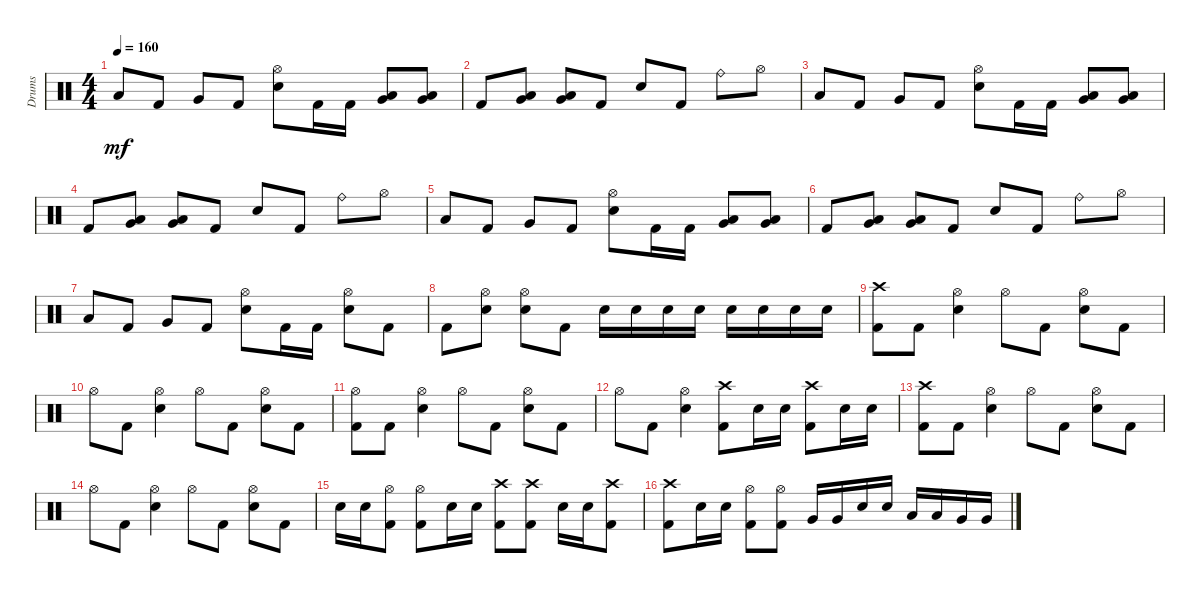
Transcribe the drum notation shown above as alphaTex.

\track ("Drums" "Drums") {instrument percussion}
\staff {score}
\articulation defaults
\ts (4 4)
\tempo 160
\clef neutral
\ks c "Low Tom (hit)".8{dy mf} "Kick (hit) 2".8 "Very Low Tom (hit)".8 "Kick (hit) 2".8
("Hi-Hat (open)" "Electric Snare (hit)").8 "Kick (hit) 2".16 "Kick (hit) 2".16 ("Very Low Tom (hit)" "Low Tom (hit)").8 ("Very Low Tom (hit)" "Low Tom (hit)").8 |
"Kick (hit) 2".8 ("Low Floor Tom (hit)" "Very Low Tom (hit)").8 ("Low Floor Tom (hit)" "Very Low Tom (hit)").8 "Kick (hit) 2".8 "Electric Snare (hit)".8 "Kick (hit) 2".8 "Ride (bell)".8 "Hi-Hat (open)".8 |
"Low Tom (hit)".8 "Kick (hit) 2".8 "Very Low Tom (hit)".8 "Kick (hit) 2".8 ("Hi-Hat (open)" "Electric Snare (hit)").8 "Kick (hit) 2".16 "Kick (hit) 2".16 ("Very Low Tom (hit)" "Low Tom (hit)").8 ("Very Low Tom (hit)" "Low Tom (hit)").8 |
"Kick (hit) 2".8 ("Low Floor Tom (hit)" "Very Low Tom (hit)").8 ("Low Floor Tom (hit)" "Very Low Tom (hit)").8 "Kick (hit) 2".8 "Electric Snare (hit)".8 "Kick (hit) 2".8 "Ride (bell)".8 "Hi-Hat (open)".8 |
"Low Tom (hit)".8 "Kick (hit) 2".8 "Very Low Tom (hit)".8 "Kick (hit) 2".8 ("Hi-Hat (open)" "Electric Snare (hit)").8 "Kick (hit) 2".16 "Kick (hit) 2".16 ("Very Low Tom (hit)" "Low Tom (hit)").8 ("Very Low Tom (hit)" "Low Tom (hit)").8 |
"Kick (hit) 2".8 ("Low Floor Tom (hit)" "Very Low Tom (hit)").8 ("Low Floor Tom (hit)" "Very Low Tom (hit)").8 "Kick (hit) 2".8 "Electric Snare (hit)".8 "Kick (hit) 2".8 "Ride (bell)".8 "Hi-Hat (open)".8 |
"Low Tom (hit)".8 "Kick (hit) 2".8 "Very Low Tom (hit)".8 "Kick (hit) 2".8 ("Hi-Hat (open)" "Electric Snare (hit)").8 "Kick (hit) 2".16 "Kick (hit) 2".16 ("Hi-Hat (open)" "Electric Snare (hit)").8 "Kick (hit) 2".8 |
"Kick (hit) 2".8 ("Hi-Hat (open)" "Electric Snare (hit)").8 ("Hi-Hat (open)" "Electric Snare (hit)").8 "Kick (hit) 2".8 "Electric Snare (hit)".16 "Electric Snare (hit)".16 "Electric Snare (hit)".16 "Electric Snare (hit)".16 "Electric Snare (hit)".16 "Electric Snare (hit)".16 "Electric Snare (hit)".16 "Electric Snare (hit)".16 |
("Crash high (hit)" "Kick (hit) 2").8 "Kick (hit) 2".8 ("Hi-Hat (open)" "Electric Snare (hit)").4 "Hi-Hat (open)".8 "Kick (hit) 2".8 ("Hi-Hat (open)" "Electric Snare (hit)").8 "Kick (hit) 2".8 |
"Hi-Hat (open)".8 "Kick (hit) 2".8 ("Hi-Hat (open)" "Electric Snare (hit)").4 "Hi-Hat (open)".8 "Kick (hit) 2".8 ("Hi-Hat (open)" "Electric Snare (hit)").8 "Kick (hit) 2".8 |
("Hi-Hat (open)" "Kick (hit) 2").8 "Kick (hit) 2".8 ("Hi-Hat (open)" "Electric Snare (hit)").4 "Hi-Hat (open)".8 "Kick (hit) 2".8 ("Hi-Hat (open)" "Electric Snare (hit)").8 "Kick (hit) 2".8 |
"Hi-Hat (open)".8 "Kick (hit) 2".8 ("Hi-Hat (open)" "Electric Snare (hit)").4 ("Crash high (hit)" "Kick (hit) 2").8 "Electric Snare (hit)".16 "Electric Snare (hit)".16 ("Crash high (hit)" "Kick (hit) 2").8 "Electric Snare (hit)".16 "Electric Snare (hit)".16 |
("Crash high (hit)" "Kick (hit) 2").8 "Kick (hit) 2".8 ("Hi-Hat (open)" "Electric Snare (hit)").4 "Hi-Hat (open)".8 "Kick (hit) 2".8 ("Hi-Hat (open)" "Electric Snare (hit)").8 "Kick (hit) 2".8 |
"Hi-Hat (open)".8 "Kick (hit) 2".8 ("Hi-Hat (open)" "Electric Snare (hit)").4 "Hi-Hat (open)".8 "Kick (hit) 2".8 ("Hi-Hat (open)" "Electric Snare (hit)").8 "Kick (hit) 2".8 |
"Electric Snare (hit)".16 "Electric Snare (hit)".16 ("Hi-Hat (open)" "Kick (hit) 2").8 ("Hi-Hat (open)" "Kick (hit) 2").8 "Electric Snare (hit)".16 "Electric Snare (hit)".16 ("Crash high (hit)" "Kick (hit) 2").8 ("Crash high (hit)" "Kick (hit) 2").8 "Electric Snare (hit)".16 "Electric Snare (hit)".16 ("Crash high (hit)" "Kick (hit) 2").8 |
("Crash high (hit)" "Kick (hit) 2").8 "Electric Snare (hit)".16 "Electric Snare (hit)".16 ("Hi-Hat (open)" "Kick (hit) 2").8 ("Hi-Hat (open)" "Kick (hit) 2").8 "Very Low Tom (hit)".16 "Very Low Tom (hit)".16 "Electric Snare (hit)".16 "Electric Snare (hit)".16 "Low Tom (hit)".16 "Low Tom (hit)".16 "Very Low Tom (hit)".16 "Very Low Tom (hit)".16
